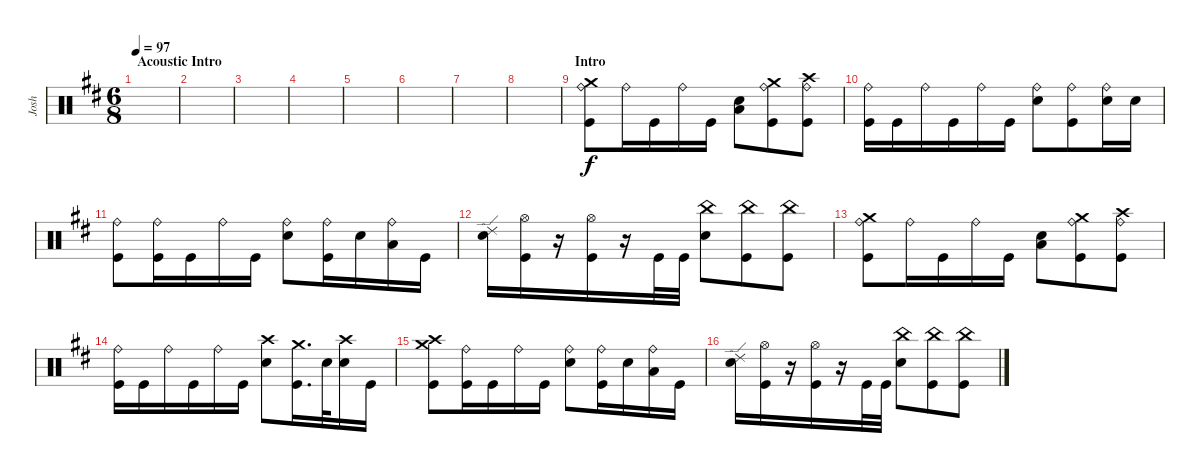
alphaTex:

\track ("Josh" "Josh") {instrument percussion}
\staff {score}
\articulation defaults
\ts (6 8)
\section ("" "Acoustic Intro")
\tempo 97
\clef neutral
\ks bminor
|
|
|
|
|
|
|
|
\section ("" "Intro")
("Kick (hit)" "Crash medium (hit)" "Ride (bell)").8 "Ride (bell)".16 "Kick (hit)".16 "Ride (bell)".16 "Kick (hit)".16 ("Snare (hit) 2" "Low Floor Tom (hit)").8 ("Kick (hit)" "Ride (bell)" "Crash medium (hit)").8 ("Kick (hit)" "Ride (bell)" "Crash high (hit)").8 |
("Kick (hit)" "Ride (bell)").16 "Kick (hit)".16 "Ride (bell)".16 "Kick (hit)".16 "Ride (bell)".16 "Kick (hit)".16 ("Snare (hit) 2" "Ride (bell)").8 ("Kick (hit)" "Ride (bell)").8 ("Snare (hit) 2" "Ride (bell)").16 "Snare (hit) 2".16 |
("Kick (hit)" "Ride (bell)").8 ("Kick (hit)" "Ride (bell)").16 "Kick (hit)".16 "Ride (bell)".16 "Kick (hit)".16 ("Snare (hit) 2" "Ride (bell)").8 ("Kick (hit)" "Ride (bell)").16 "Snare (hit) 2".16 ("Ride (bell)" "Low Floor Tom (hit)").16 "Kick (hit)".16 |
("Snare (hit) 2" "Ride (edge) 2").16 ("Kick (hit)" "Hi-Hat (open)").16 r.16 ("Kick (hit)" "Hi-Hat (open)").16 r.16 "Kick (hit)".32 "Kick (hit)".32 ("Snare (hit) 2" "China (hit)").8 ("Kick (hit)" "China (hit)").8 ("Kick (hit)" "China (hit)").8 |
("Kick (hit)" "Crash medium (hit)" "Ride (bell)").8 "Ride (bell)".16 "Kick (hit)".16 "Ride (bell)".16 "Kick (hit)".16 ("Snare (hit) 2" "Low Floor Tom (hit)").8 ("Kick (hit)" "Ride (bell)" "Crash medium (hit)").8 ("Kick (hit)" "Ride (bell)" "Crash high (hit)").8 |
("Kick (hit)" "Ride (bell)").16 "Kick (hit)".16 "Ride (bell)".16 "Kick (hit)".16 "Ride (bell)".16 "Kick (hit)".16 ("Snare (hit) 2" "Crash high (hit)").8 ("Kick (hit)" "Crash medium (hit)").16{d} "Snare (hit) 2".32 ("Snare (hit) 2" "Crash high (hit)").16 "Kick (hit)".16 |
("Kick (hit)" "Crash high (hit)" "Crash medium (hit)").8 ("Kick (hit)" "Ride (bell)").16 "Kick (hit)".16 "Ride (bell)".16 "Kick (hit)".16 ("Snare (hit) 2" "Ride (bell)").8 ("Kick (hit)" "Ride (bell)").16 "Snare (hit) 2".16 ("Ride (bell)" "Low Floor Tom (hit)").16 "Kick (hit)".16 |
("Snare (hit) 2" "Ride (edge) 2").16 ("Kick (hit)" "Hi-Hat (open)").16 r.16 ("Kick (hit)" "Hi-Hat (open)").16 r.16 "Kick (hit)".32 "Kick (hit)".32 ("Snare (hit) 2" "China (hit)").8 ("Kick (hit)" "China (hit)").8 ("Kick (hit)" "China (hit)").8
